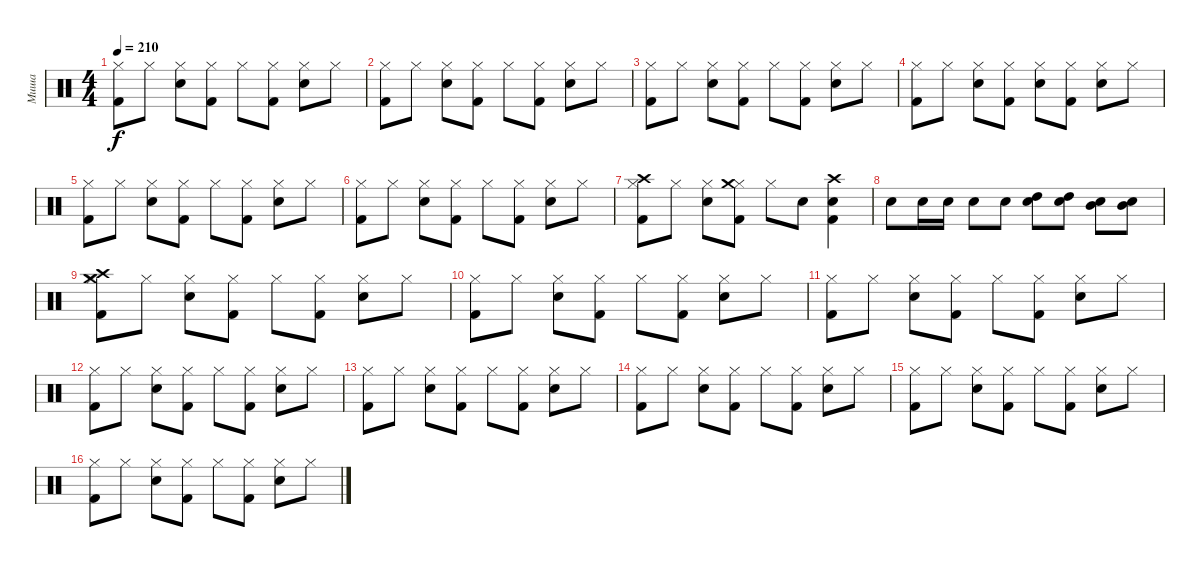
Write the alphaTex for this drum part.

\track ("Миша" "Миша") {instrument percussion}
\staff {score}
\articulation defaults
\ts (4 4)
\tempo 210
\clef neutral
\ks c
("Hi-Hat (closed)" "Kick (hit) 2").8{dy f} "Hi-Hat (closed)".8 ("Hi-Hat (closed)" "Snare (hit) 2").8 ("Hi-Hat (closed)" "Kick (hit) 2").8 "Hi-Hat (closed)".8 ("Hi-Hat (closed)" "Kick (hit) 2").8 ("Hi-Hat (closed)" "Snare (hit) 2").8 "Hi-Hat (closed)".8 |
("Hi-Hat (closed)" "Kick (hit) 2").8 "Hi-Hat (closed)".8 ("Hi-Hat (closed)" "Snare (hit) 2").8 ("Hi-Hat (closed)" "Kick (hit) 2").8 "Hi-Hat (closed)".8 ("Hi-Hat (closed)" "Kick (hit) 2").8 ("Hi-Hat (closed)" "Snare (hit) 2").8 "Hi-Hat (closed)".8 |
("Hi-Hat (closed)" "Kick (hit) 2").8 "Hi-Hat (closed)".8 ("Hi-Hat (closed)" "Snare (hit) 2").8 ("Hi-Hat (closed)" "Kick (hit) 2").8 "Hi-Hat (closed)".8 ("Hi-Hat (closed)" "Kick (hit) 2").8 ("Hi-Hat (closed)" "Snare (hit) 2").8 "Hi-Hat (closed)".8 |
("Hi-Hat (closed)" "Kick (hit) 2").8 "Hi-Hat (closed)".8 ("Hi-Hat (closed)" "Snare (hit) 2").8 ("Hi-Hat (closed)" "Kick (hit) 2").8 ("Hi-Hat (closed)" "Snare (hit) 2").8 ("Hi-Hat (closed)" "Kick (hit) 2").8 ("Hi-Hat (closed)" "Snare (hit) 2").8 "Hi-Hat (closed)".8 |
("Hi-Hat (closed)" "Kick (hit) 2").8 "Hi-Hat (closed)".8 ("Hi-Hat (closed)" "Snare (hit) 2").8 ("Hi-Hat (closed)" "Kick (hit) 2").8 "Hi-Hat (closed)".8 ("Hi-Hat (closed)" "Kick (hit) 2").8 ("Hi-Hat (closed)" "Snare (hit) 2").8 "Hi-Hat (closed)".8 |
("Hi-Hat (closed)" "Kick (hit) 2").8 "Hi-Hat (closed)".8 ("Hi-Hat (closed)" "Snare (hit) 2").8 ("Hi-Hat (closed)" "Kick (hit) 2").8 "Hi-Hat (closed)".8 ("Hi-Hat (closed)" "Kick (hit) 2").8 ("Hi-Hat (closed)" "Snare (hit) 2").8 "Hi-Hat (closed)".8 |
("Hi-Hat (closed)" "Kick (hit) 2" "Crash high (hit)").8 "Hi-Hat (closed)".8 ("Hi-Hat (closed)" "Snare (hit) 2").8 ("Hi-Hat (closed)" "Kick (hit) 2" "Crash medium (hit)").8 "Hi-Hat (closed)".8 "Snare (hit) 2".8 ("Kick (hit) 2" "Snare (hit) 2" "Crash high (hit)").4 |
"Snare (hit) 2".8 "Snare (hit) 2".16 "Snare (hit) 2".16 "Snare (hit) 2".8 "Snare (hit) 2".8 ("Snare (hit) 2" "High Tom (hit)").8 ("Snare (hit) 2" "High Tom (hit)").8 ("Snare (hit) 2" "Mid Tom (hit)").8 ("Snare (hit) 2" "Mid Tom (hit)").8 |
("Hi-Hat (closed)" "Kick (hit) 2" "Crash medium (hit)" "Crash high (hit)").8 "Hi-Hat (closed)".8 ("Hi-Hat (closed)" "Snare (hit) 2").8 ("Hi-Hat (closed)" "Kick (hit) 2").8 "Hi-Hat (closed)".8 ("Hi-Hat (closed)" "Kick (hit) 2").8 ("Hi-Hat (closed)" "Snare (hit) 2").8 "Hi-Hat (closed)".8 |
("Hi-Hat (closed)" "Kick (hit) 2").8 "Hi-Hat (closed)".8 ("Hi-Hat (closed)" "Snare (hit) 2").8 ("Hi-Hat (closed)" "Kick (hit) 2").8 "Hi-Hat (closed)".8 ("Hi-Hat (closed)" "Kick (hit) 2").8 ("Hi-Hat (closed)" "Snare (hit) 2").8 "Hi-Hat (closed)".8 |
("Hi-Hat (closed)" "Kick (hit) 2").8 "Hi-Hat (closed)".8 ("Hi-Hat (closed)" "Snare (hit) 2").8 ("Hi-Hat (closed)" "Kick (hit) 2").8 "Hi-Hat (closed)".8 ("Hi-Hat (closed)" "Kick (hit) 2").8 ("Hi-Hat (closed)" "Snare (hit) 2").8 "Hi-Hat (closed)".8 |
("Hi-Hat (closed)" "Kick (hit) 2").8 "Hi-Hat (closed)".8 ("Hi-Hat (closed)" "Snare (hit) 2").8 ("Hi-Hat (closed)" "Kick (hit) 2").8 "Hi-Hat (closed)".8 ("Hi-Hat (closed)" "Kick (hit) 2").8 ("Hi-Hat (closed)" "Snare (hit) 2").8 "Hi-Hat (closed)".8 |
("Hi-Hat (closed)" "Kick (hit) 2").8 "Hi-Hat (closed)".8 ("Hi-Hat (closed)" "Snare (hit) 2").8 ("Hi-Hat (closed)" "Kick (hit) 2").8 "Hi-Hat (closed)".8 ("Hi-Hat (closed)" "Kick (hit) 2").8 ("Hi-Hat (closed)" "Snare (hit) 2").8 "Hi-Hat (closed)".8 |
("Hi-Hat (closed)" "Kick (hit) 2").8 "Hi-Hat (closed)".8 ("Hi-Hat (closed)" "Snare (hit) 2").8 ("Hi-Hat (closed)" "Kick (hit) 2").8 "Hi-Hat (closed)".8 ("Hi-Hat (closed)" "Kick (hit) 2").8 ("Hi-Hat (closed)" "Snare (hit) 2").8 "Hi-Hat (closed)".8 |
("Hi-Hat (closed)" "Kick (hit) 2").8 "Hi-Hat (closed)".8 ("Hi-Hat (closed)" "Snare (hit) 2").8 ("Hi-Hat (closed)" "Kick (hit) 2").8 "Hi-Hat (closed)".8 ("Hi-Hat (closed)" "Kick (hit) 2").8 ("Hi-Hat (closed)" "Snare (hit) 2").8 "Hi-Hat (closed)".8 |
("Hi-Hat (closed)" "Kick (hit) 2").8 "Hi-Hat (closed)".8 ("Hi-Hat (closed)" "Snare (hit) 2").8 ("Hi-Hat (closed)" "Kick (hit) 2").8 "Hi-Hat (closed)".8 ("Hi-Hat (closed)" "Kick (hit) 2").8 ("Hi-Hat (closed)" "Snare (hit) 2").8 "Hi-Hat (closed)".8
